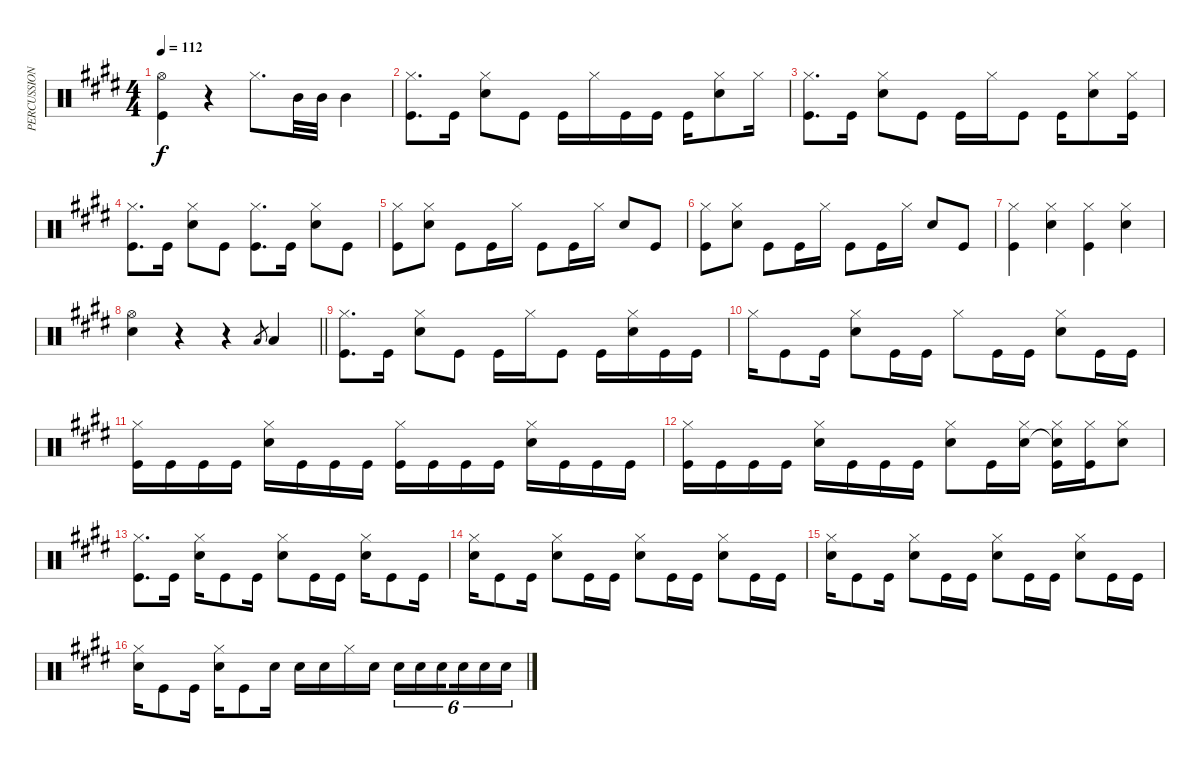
\track ("PERCUSSION" "PERCUSSION") {instrument percussion}
\staff {score}
\articulation defaults
\ts (4 4)
\tempo 112
\clef neutral
\ks c#minor
("Hi-Hat (open)" "Kick (hit)").4{dy f} r.4 "Hi-Hat (closed)".8{d} "Mid Tom (hit)".32 "Mid Tom (hit)".32 "Mid Tom (hit)".4 |
("Hi-Hat (closed)" "Kick (hit)").8{d} "Kick (hit)".16 ("Hi-Hat (closed)" "Snare (hit) 2").8 "Kick (hit)".8 "Kick (hit)".16 "Hi-Hat (closed)".16 "Kick (hit)".16 "Kick (hit)".16 "Kick (hit)".16 ("Hi-Hat (closed)" "Snare (hit) 2").8 "Hi-Hat (closed)".16 |
("Hi-Hat (closed)" "Kick (hit)").8{d} "Kick (hit)".16 ("Hi-Hat (closed)" "Snare (hit) 2").8 "Kick (hit)".8 "Kick (hit)".16 "Hi-Hat (closed)".16 "Kick (hit)".8 "Kick (hit)".16 ("Hi-Hat (closed)" "Snare (hit) 2").8 ("Hi-Hat (closed)" "Kick (hit)").16 |
("Hi-Hat (closed)" "Kick (hit)").8{d} "Kick (hit)".16 ("Hi-Hat (closed)" "Snare (hit) 2").8 "Kick (hit)".8 ("Hi-Hat (closed)" "Kick (hit)").8{d} "Kick (hit)".16 ("Hi-Hat (closed)" "Snare (hit) 2").8 "Kick (hit)".8 |
("Hi-Hat (closed)" "Kick (hit)").8 ("Hi-Hat (closed)" "Snare (hit) 2").8 "Kick (hit)".8 "Kick (hit)".16 "Hi-Hat (closed)".16 "Kick (hit)".8 "Kick (hit)".16 "Hi-Hat (closed)".16 "Snare (hit) 2".8 "Kick (hit)".8 |
("Hi-Hat (closed)" "Kick (hit)").8 ("Hi-Hat (closed)" "Snare (hit) 2").8 "Kick (hit)".8 "Kick (hit)".16 "Hi-Hat (closed)".16 "Kick (hit)".8 "Kick (hit)".16 "Hi-Hat (closed)".16 "Snare (hit) 2".8 "Kick (hit)".8 |
("Hi-Hat (closed)" "Kick (hit)").4 ("Hi-Hat (closed)" "Snare (hit) 2").4 ("Hi-Hat (closed)" "Kick (hit)").4 ("Hi-Hat (closed)" "Snare (hit) 2").4 |
\barLineRight lightlight
("Hi-Hat (open)" "Snare (hit) 2").4 r.4 r.4 "Low Tom (hit)".8{gr} "Low Tom (hit)".4 |
("Hi-Hat (closed)" "Kick (hit)").8{d} "Kick (hit)".16 ("Hi-Hat (closed)" "Snare (hit) 2").8 "Kick (hit)".8 "Kick (hit)".16 "Hi-Hat (closed)".16 "Kick (hit)".8 "Kick (hit)".16 ("Hi-Hat (closed)" "Snare (hit) 2").16 "Kick (hit)".16 "Kick (hit)".16 |
"Hi-Hat (closed)".16 "Kick (hit)".8 "Kick (hit)".16 ("Hi-Hat (closed)" "Snare (hit) 2").8 "Kick (hit)".16 "Kick (hit)".16 "Hi-Hat (closed)".8 "Kick (hit)".16 "Kick (hit)".16 ("Hi-Hat (closed)" "Snare (hit) 2").8 "Kick (hit)".16 "Kick (hit)".16 |
("Hi-Hat (closed)" "Kick (hit)").16 "Kick (hit)".16 "Kick (hit)".16 "Kick (hit)".16 ("Hi-Hat (closed)" "Snare (hit) 2").16 "Kick (hit)".16 "Kick (hit)".16 "Kick (hit)".16 ("Hi-Hat (closed)" "Kick (hit)").16 "Kick (hit)".16 "Kick (hit)".16 "Kick (hit)".16 ("Hi-Hat (closed)" "Snare (hit) 2").16 "Kick (hit)".16 "Kick (hit)".16 "Kick (hit)".16 |
("Hi-Hat (closed)" "Kick (hit)").16 "Kick (hit)".16 "Kick (hit)".16 "Kick (hit)".16 ("Hi-Hat (closed)" "Snare (hit) 2").16 "Kick (hit)".16 "Kick (hit)".16 "Kick (hit)".16 ("Hi-Hat (closed)" "Snare (hit) 2").8 "Kick (hit)".16 ("Hi-Hat (closed)" "Snare (hit) 2").16 ("Hi-Hat (closed)" "Snare (hit) 2"{t} "Kick (hit)").16 ("Hi-Hat (closed)" "Kick (hit)").16 ("Hi-Hat (closed)" "Snare (hit) 2").8 |
("Hi-Hat (closed)" "Kick (hit)").8{d} "Kick (hit)".16 ("Hi-Hat (closed)" "Snare (hit) 2").16 "Kick (hit)".8 "Kick (hit)".16 ("Hi-Hat (closed)" "Snare (hit) 2").8 "Kick (hit)".16 "Kick (hit)".16 ("Hi-Hat (closed)" "Snare (hit) 2").16 "Kick (hit)".8 "Kick (hit)".16 |
("Hi-Hat (closed)" "Snare (hit) 2").16 "Kick (hit)".8 "Kick (hit)".16 ("Hi-Hat (closed)" "Snare (hit) 2").8 "Kick (hit)".16 "Kick (hit)".16 ("Hi-Hat (closed)" "Snare (hit) 2").8 "Kick (hit)".16 "Kick (hit)".16 ("Hi-Hat (closed)" "Snare (hit) 2").8 "Kick (hit)".16 "Kick (hit)".16 |
("Hi-Hat (closed)" "Snare (hit) 2").16 "Kick (hit)".8 "Kick (hit)".16 ("Hi-Hat (closed)" "Snare (hit) 2").8 "Kick (hit)".16 "Kick (hit)".16 ("Hi-Hat (closed)" "Snare (hit) 2").8 "Kick (hit)".16 "Kick (hit)".16 ("Hi-Hat (closed)" "Snare (hit) 2").8 "Kick (hit)".16 "Kick (hit)".16 |
("Hi-Hat (closed)" "Snare (hit) 2").16 "Kick (hit)".8 "Kick (hit)".16 ("Hi-Hat (closed)" "Snare (hit) 2").16 "Kick (hit)".8 "Snare (hit) 2".16 "Snare (hit) 2".16 "Snare (hit) 2".16 "Hi-Hat (closed)".16 "Snare (hit) 2".16 "Snare (hit) 2".16{tu (6 4)} "Snare (hit) 2".16{tu (6 4)} "Snare (hit) 2".16{tu (6 4) beam splitsecondary} "Snare (hit) 2".16{tu (6 4)} "Snare (hit) 2".16{tu (6 4)} "Snare (hit) 2".16{tu (6 4)}
